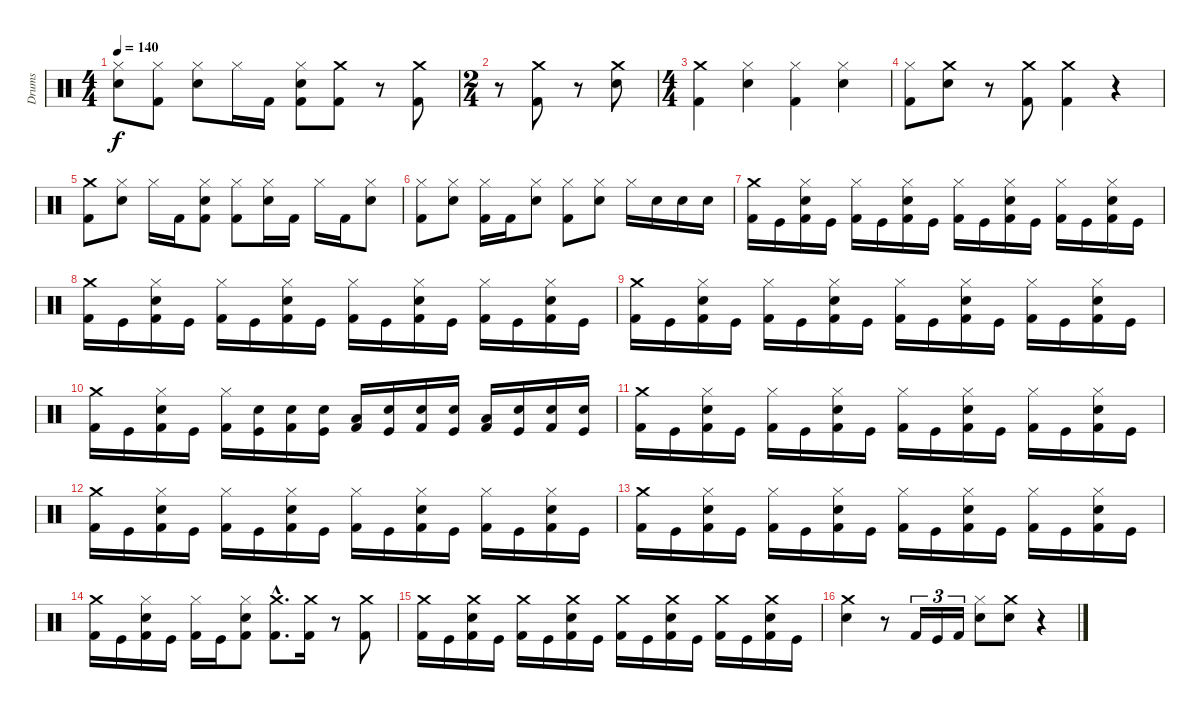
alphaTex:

\track ("Drums" "Drums") {instrument percussion}
\staff {score}
\articulation defaults
\ts (4 4)
\tempo 140
\clef neutral
\ks c
("Snare (hit) 2" "Hi-Hat (closed)").8{dy f} ("Kick (hit) 2" "Hi-Hat (closed)").8 ("Hi-Hat (closed)" "Snare (hit) 2").8 "Hi-Hat (closed)".16 "Kick (hit) 2".16 ("Hi-Hat (closed)" "Snare (hit) 2" "Kick (hit) 2").8 ("Crash medium (hit)" "Kick (hit) 2").8 r.8 ("Kick (hit) 2" "Crash medium (hit)").8 |
\ts (2 4)
r.8 ("Crash medium (hit)" "Kick (hit) 2").8 r.8 ("Crash medium (hit)" "Snare (hit) 2").8 |
\ts (4 4)
("Kick (hit) 2" "Crash medium (hit)").4 ("Hi-Hat (closed)" "Snare (hit) 2").4 ("Hi-Hat (closed)" "Kick (hit) 2").4 ("Snare (hit) 2" "Hi-Hat (closed)").4 |
("Hi-Hat (closed)" "Kick (hit) 2").8 ("Snare (hit) 2" "Crash medium (hit)").8 r.8 ("Crash medium (hit)" "Kick (hit) 2").8 ("Kick (hit) 2" "Crash medium (hit)").4 r.4 |
("Kick (hit) 2" "Crash medium (hit)").8 ("Snare (hit) 2" "Hi-Hat (closed)").8 "Hi-Hat (closed)".16 "Kick (hit) 2".16 ("Kick (hit) 2" "Snare (hit) 2" "Hi-Hat (closed)").8 ("Kick (hit) 2" "Hi-Hat (closed)").8 ("Snare (hit) 2" "Hi-Hat (closed)").16 "Kick (hit) 2".16 "Hi-Hat (closed)".16 "Kick (hit) 2".16 ("Snare (hit) 2" "Hi-Hat (closed)").8 |
("Hi-Hat (closed)" "Kick (hit) 2").8 ("Snare (hit) 2" "Hi-Hat (closed)").8 ("Kick (hit) 2" "Hi-Hat (closed)").16 "Kick (hit) 2".16 ("Snare (hit) 2" "Hi-Hat (closed)").8 ("Hi-Hat (closed)" "Kick (hit) 2").8 ("Snare (hit) 2" "Hi-Hat (closed)").8 "Hi-Hat (closed)".16 "Snare (hit) 2".16 "Snare (hit) 2".16 "Snare (hit) 2".16 |
("Crash medium (hit)" "Kick (hit) 2").16 "Kick (hit)".16 ("Snare (hit) 2" "Hi-Hat (closed)" "Kick (hit) 2").16 "Kick (hit)".16 ("Hi-Hat (closed)" "Kick (hit) 2").16 "Kick (hit)".16 ("Snare (hit) 2" "Hi-Hat (closed)" "Kick (hit) 2").16 "Kick (hit)".16 ("Hi-Hat (closed)" "Kick (hit) 2").16 "Kick (hit)".16 ("Snare (hit) 2" "Hi-Hat (closed)" "Kick (hit) 2").16 "Kick (hit)".16 ("Hi-Hat (closed)" "Kick (hit) 2").16 "Kick (hit)".16 ("Snare (hit) 2" "Hi-Hat (closed)" "Kick (hit) 2").16 "Kick (hit)".16 |
("Crash medium (hit)" "Kick (hit) 2").16 "Kick (hit)".16 ("Snare (hit) 2" "Hi-Hat (closed)" "Kick (hit) 2").16 "Kick (hit)".16 ("Hi-Hat (closed)" "Kick (hit) 2").16 "Kick (hit)".16 ("Snare (hit) 2" "Hi-Hat (closed)" "Kick (hit) 2").16 "Kick (hit)".16 ("Hi-Hat (closed)" "Kick (hit) 2").16 "Kick (hit)".16 ("Snare (hit) 2" "Hi-Hat (closed)" "Kick (hit) 2").16 "Kick (hit)".16 ("Hi-Hat (closed)" "Kick (hit) 2").16 "Kick (hit)".16 ("Snare (hit) 2" "Hi-Hat (closed)" "Kick (hit) 2").16 "Kick (hit)".16 |
("Crash medium (hit)" "Kick (hit) 2").16 "Kick (hit)".16 ("Snare (hit) 2" "Hi-Hat (closed)" "Kick (hit) 2").16 "Kick (hit)".16 ("Hi-Hat (closed)" "Kick (hit) 2").16 "Kick (hit)".16 ("Snare (hit) 2" "Hi-Hat (closed)" "Kick (hit) 2").16 "Kick (hit)".16 ("Hi-Hat (closed)" "Kick (hit) 2").16 "Kick (hit)".16 ("Snare (hit) 2" "Hi-Hat (closed)" "Kick (hit) 2").16 "Kick (hit)".16 ("Hi-Hat (closed)" "Kick (hit) 2").16 "Kick (hit)".16 ("Snare (hit) 2" "Hi-Hat (closed)" "Kick (hit) 2").16 "Kick (hit)".16 |
("Crash medium (hit)" "Kick (hit) 2").16 "Kick (hit)".16 ("Snare (hit) 2" "Hi-Hat (closed)" "Kick (hit) 2").16 "Kick (hit)".16 ("Hi-Hat (closed)" "Kick (hit) 2").16 ("Snare (hit) 2" "Kick (hit)").16 ("Snare (hit) 2" "Kick (hit) 2").16 ("Snare (hit) 2" "Kick (hit)").16 ("Low Tom (hit)" "Kick (hit) 2").16 ("Snare (hit) 2" "Kick (hit)").16 ("Snare (hit) 2" "Kick (hit) 2").16 ("Snare (hit) 2" "Kick (hit)").16 ("Low Tom (hit)" "Kick (hit) 2").16 ("Snare (hit) 2" "Kick (hit)").16 ("Snare (hit) 2" "Kick (hit) 2").16 ("Snare (hit) 2" "Kick (hit)").16 |
("Crash medium (hit)" "Kick (hit) 2").16 "Kick (hit)".16 ("Snare (hit) 2" "Hi-Hat (closed)" "Kick (hit) 2").16 "Kick (hit)".16 ("Hi-Hat (closed)" "Kick (hit) 2").16 "Kick (hit)".16 ("Snare (hit) 2" "Hi-Hat (closed)" "Kick (hit) 2").16 "Kick (hit)".16 ("Hi-Hat (closed)" "Kick (hit) 2").16 "Kick (hit)".16 ("Snare (hit) 2" "Hi-Hat (closed)" "Kick (hit) 2").16 "Kick (hit)".16 ("Hi-Hat (closed)" "Kick (hit) 2").16 "Kick (hit)".16 ("Snare (hit) 2" "Hi-Hat (closed)" "Kick (hit) 2").16 "Kick (hit)".16 |
("Crash medium (hit)" "Kick (hit) 2").16 "Kick (hit)".16 ("Snare (hit) 2" "Hi-Hat (closed)" "Kick (hit) 2").16 "Kick (hit)".16 ("Hi-Hat (closed)" "Kick (hit) 2").16 "Kick (hit)".16 ("Snare (hit) 2" "Hi-Hat (closed)" "Kick (hit) 2").16 "Kick (hit)".16 ("Hi-Hat (closed)" "Kick (hit) 2").16 "Kick (hit)".16 ("Snare (hit) 2" "Hi-Hat (closed)" "Kick (hit) 2").16 "Kick (hit)".16 ("Hi-Hat (closed)" "Kick (hit) 2").16 "Kick (hit)".16 ("Snare (hit) 2" "Hi-Hat (closed)" "Kick (hit) 2").16 "Kick (hit)".16 |
("Crash medium (hit)" "Kick (hit) 2").16 "Kick (hit)".16 ("Snare (hit) 2" "Hi-Hat (closed)" "Kick (hit) 2").16 "Kick (hit)".16 ("Hi-Hat (closed)" "Kick (hit) 2").16 "Kick (hit)".16 ("Snare (hit) 2" "Hi-Hat (closed)" "Kick (hit) 2").16 "Kick (hit)".16 ("Hi-Hat (closed)" "Kick (hit) 2").16 "Kick (hit)".16 ("Snare (hit) 2" "Hi-Hat (closed)" "Kick (hit) 2").16 "Kick (hit)".16 ("Hi-Hat (closed)" "Kick (hit) 2").16 "Kick (hit)".16 ("Snare (hit) 2" "Hi-Hat (closed)" "Kick (hit) 2").16 "Kick (hit)".16 |
("Kick (hit) 2" "Crash medium (hit)").16 "Kick (hit)".16 ("Kick (hit) 2" "Snare (hit) 2" "Hi-Hat (closed)").16 "Kick (hit)".16 ("Kick (hit) 2" "Hi-Hat (closed)").16 "Kick (hit)".16 ("Snare (hit) 2" "Hi-Hat (closed)" "Kick (hit) 2").8 ("Crash medium (hit)"{hac} "Kick (hit) 2"{hac}).8{d} ("Crash medium (hit)" "Kick (hit) 2").16 r.8 ("Crash medium (hit)" "Kick (hit) 2").8 |
("Crash medium (hit)" "Kick (hit) 2").16 "Kick (hit)".16 ("Snare (hit) 2" "Crash medium (hit)" "Kick (hit) 2").16 "Kick (hit)".16 ("Crash medium (hit)" "Kick (hit) 2").16 "Kick (hit)".16 ("Snare (hit) 2" "Crash medium (hit)" "Kick (hit) 2").16 "Kick (hit)".16 ("Crash medium (hit)" "Kick (hit) 2").16 "Kick (hit)".16 ("Snare (hit) 2" "Crash medium (hit)" "Kick (hit) 2").16 "Kick (hit)".16 ("Crash medium (hit)" "Kick (hit) 2").16 "Kick (hit)".16 ("Kick (hit) 2" "Snare (hit) 2" "Crash medium (hit)").16 "Kick (hit)".16 |
("Snare (hit) 2" "Crash medium (hit)").4 r.8 "Kick (hit) 2".16{tu (3 2)} "Kick (hit)".16{tu (3 2)} "Kick (hit) 2".16{tu (3 2)} ("Snare (hit) 2" "Hi-Hat (closed)").8 ("Crash medium (hit)" "Snare (hit) 2").8 r.4
